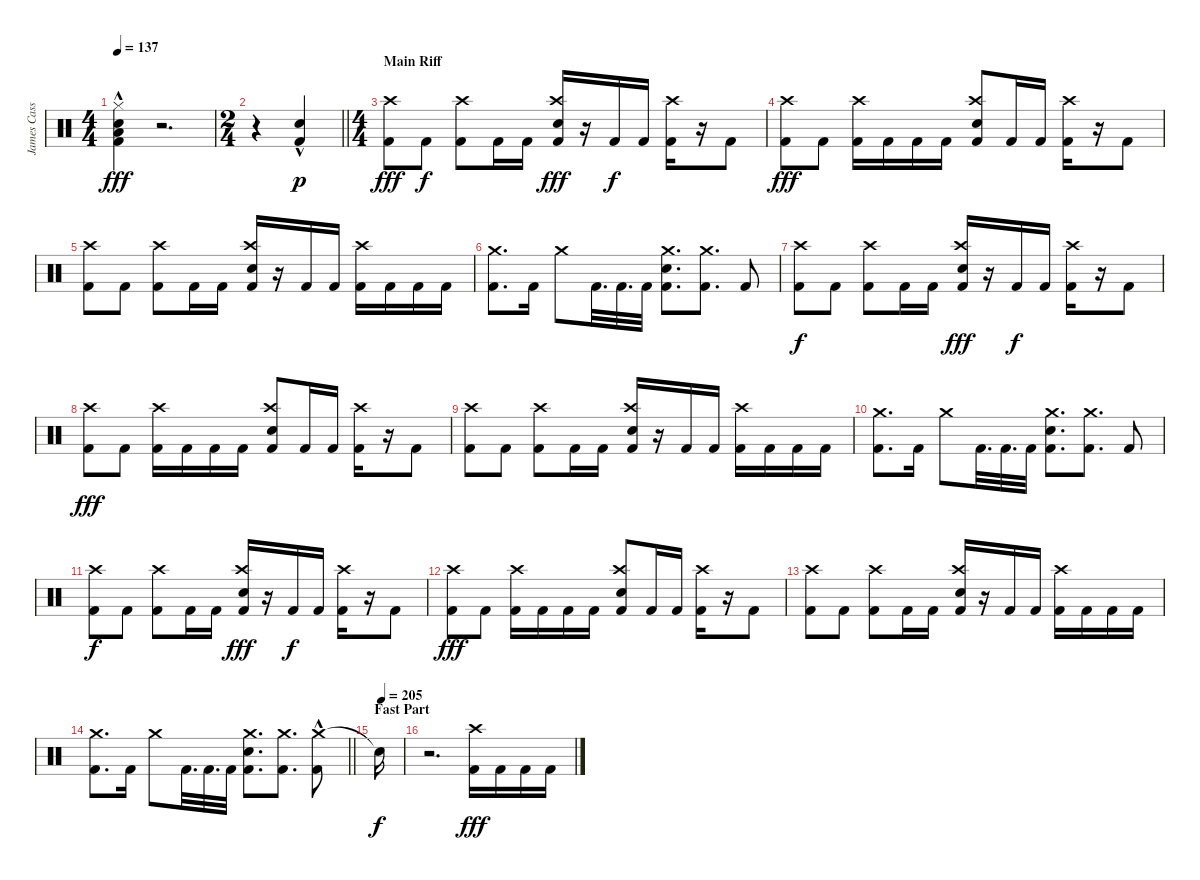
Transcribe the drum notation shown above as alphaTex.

\track ("James Cassels" "James Cass") {instrument percussion}
\staff {score}
\articulation defaults
\ts (4 4)
\tempo 137
\clef neutral
\ks c
("Hi-Hat (closed)" "Snare (hit) 2"{hac} "Low Floor Tom (hit)" "Kick (hit) 2"{hac}).4{dy fff} r.2{d} |
\ts (2 4)
\barLineRight lightlight
r.4 ("Snare (hit) 2"{hac} "Kick (hit) 2").4{dy p} |
\ts (4 4)
\section ("" "Main Riff")
("Crash high (hit)" "Kick (hit) 2").8{dy fff} "Kick (hit) 2".8{dy f} ("Crash high (hit)" "Kick (hit) 2").8 "Kick (hit) 2".16 "Kick (hit) 2".16 ("Crash high (hit)" "Electric Snare (hit)" "Kick (hit) 2").16{dy fff} r.16 "Kick (hit) 2".16{dy f} "Kick (hit) 2".16 ("Crash high (hit)" "Kick (hit) 2").16 r.16 "Kick (hit) 2".8 |
("Crash high (hit)" "Kick (hit) 2").8{dy fff} "Kick (hit) 2".8 ("Crash high (hit)" "Kick (hit) 2").16 "Kick (hit) 2".16 "Kick (hit) 2".16 "Kick (hit) 2".16 ("Crash high (hit)" "Electric Snare (hit)" "Kick (hit) 2").8 "Kick (hit) 2".16 "Kick (hit) 2".16 ("Crash high (hit)" "Kick (hit) 2").16 r.16 "Kick (hit) 2".8 |
("Crash high (hit)" "Kick (hit) 2").8 "Kick (hit) 2".8 ("Crash high (hit)" "Kick (hit) 2").8 "Kick (hit) 2".16 "Kick (hit) 2".16 ("Crash high (hit)" "Electric Snare (hit)" "Kick (hit) 2").16 r.16 "Kick (hit) 2".16 "Kick (hit) 2".16 ("Crash high (hit)" "Kick (hit) 2").16 "Kick (hit) 2".16 "Kick (hit) 2".16 "Kick (hit) 2".16 |
("Crash medium (hit)" "Kick (hit) 2").8{d} "Kick (hit) 2".16 "Crash medium (hit)".8 "Kick (hit) 2".32{d} "Kick (hit) 2".32{d} "Kick (hit) 2".32 ("Crash medium (hit)" "Electric Snare (hit)" "Kick (hit) 2").8{d} ("Crash medium (hit)" "Kick (hit) 2").8{d} "Kick (hit) 2".8 |
("Crash high (hit)" "Kick (hit) 2").8{dy f} "Kick (hit) 2".8 ("Crash high (hit)" "Kick (hit) 2").8 "Kick (hit) 2".16 "Kick (hit) 2".16 ("Crash high (hit)" "Electric Snare (hit)" "Kick (hit) 2").16{dy fff} r.16 "Kick (hit) 2".16{dy f} "Kick (hit) 2".16 ("Crash high (hit)" "Kick (hit) 2").16 r.16 "Kick (hit) 2".8 |
("Crash high (hit)" "Kick (hit) 2").8{dy fff} "Kick (hit) 2".8 ("Crash high (hit)" "Kick (hit) 2").16 "Kick (hit) 2".16 "Kick (hit) 2".16 "Kick (hit) 2".16 ("Crash high (hit)" "Electric Snare (hit)" "Kick (hit) 2").8 "Kick (hit) 2".16 "Kick (hit) 2".16 ("Crash high (hit)" "Kick (hit) 2").16 r.16 "Kick (hit) 2".8 |
("Crash high (hit)" "Kick (hit) 2").8 "Kick (hit) 2".8 ("Crash high (hit)" "Kick (hit) 2").8 "Kick (hit) 2".16 "Kick (hit) 2".16 ("Crash high (hit)" "Electric Snare (hit)" "Kick (hit) 2").16 r.16 "Kick (hit) 2".16 "Kick (hit) 2".16 ("Crash high (hit)" "Kick (hit) 2").16 "Kick (hit) 2".16 "Kick (hit) 2".16 "Kick (hit) 2".16 |
("Crash medium (hit)" "Kick (hit) 2").8{d} "Kick (hit) 2".16 "Crash medium (hit)".8 "Kick (hit) 2".32{d} "Kick (hit) 2".32{d} "Kick (hit) 2".32 ("Crash medium (hit)" "Electric Snare (hit)" "Kick (hit) 2").8{d} ("Crash medium (hit)" "Kick (hit) 2").8{d} "Kick (hit) 2".8 |
("Crash high (hit)" "Kick (hit) 2").8{dy f} "Kick (hit) 2".8 ("Crash high (hit)" "Kick (hit) 2").8 "Kick (hit) 2".16 "Kick (hit) 2".16 ("Crash high (hit)" "Electric Snare (hit)" "Kick (hit) 2").16{dy fff} r.16 "Kick (hit) 2".16{dy f} "Kick (hit) 2".16 ("Crash high (hit)" "Kick (hit) 2").16 r.16 "Kick (hit) 2".8 |
("Crash high (hit)" "Kick (hit) 2").8{dy fff} "Kick (hit) 2".8 ("Crash high (hit)" "Kick (hit) 2").16 "Kick (hit) 2".16 "Kick (hit) 2".16 "Kick (hit) 2".16 ("Crash high (hit)" "Electric Snare (hit)" "Kick (hit) 2").8 "Kick (hit) 2".16 "Kick (hit) 2".16 ("Crash high (hit)" "Kick (hit) 2").16 r.16 "Kick (hit) 2".8 |
("Crash high (hit)" "Kick (hit) 2").8 "Kick (hit) 2".8 ("Crash high (hit)" "Kick (hit) 2").8 "Kick (hit) 2".16 "Kick (hit) 2".16 ("Crash high (hit)" "Electric Snare (hit)" "Kick (hit) 2").16 r.16 "Kick (hit) 2".16 "Kick (hit) 2".16 ("Crash high (hit)" "Kick (hit) 2").16 "Kick (hit) 2".16 "Kick (hit) 2".16 "Kick (hit) 2".16 |
\barLineRight lightlight
("Crash medium (hit)" "Kick (hit) 2").8{d} "Kick (hit) 2".16 "Crash medium (hit)".8 "Kick (hit) 2".32{d} "Kick (hit) 2".32{d} "Kick (hit) 2".32 ("Crash medium (hit)" "Electric Snare (hit)" "Kick (hit) 2").8{d} ("Crash medium (hit)" "Kick (hit) 2").8{d} ("Crash medium (hit)"{hac} "Kick (hit) 2").8 |
\section ("" "Fast Part")
\tempo (205 0.125)
"Snare (hit)"{t}.16{dy f} |
r.2{d} ("Crash high (hit)" "Kick (hit) 2").16{dy fff} "Kick (hit) 2".16 "Kick (hit) 2".16 "Kick (hit) 2".16
